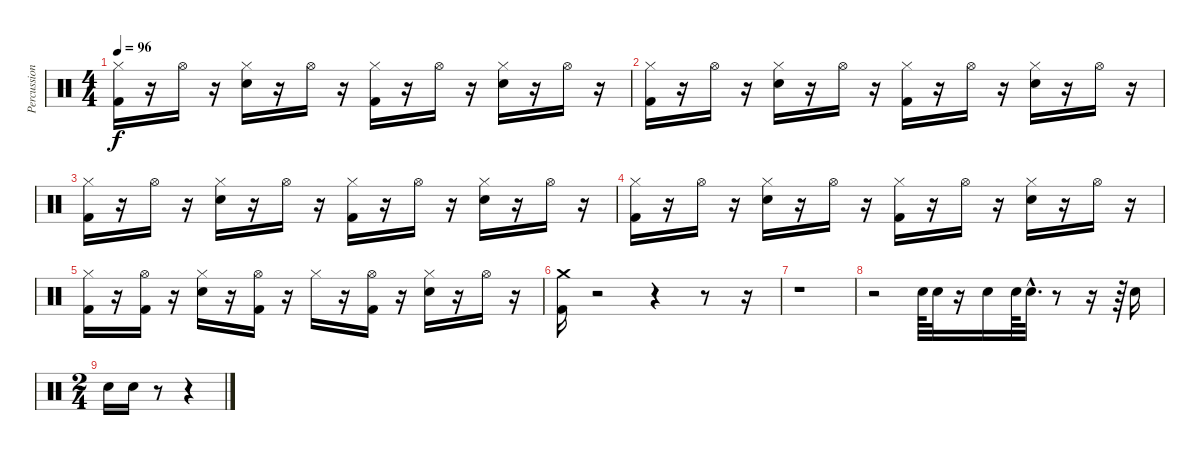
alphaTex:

\track ("Percussion" "Percussion") {instrument percussion}
\staff {score}
\articulation defaults
\ts (4 4)
\tempo 96
\clef neutral
\ks c
("Hi-Hat (closed)" "Kick (hit) 2").16{dy f} r.16 "Hi-Hat (open)".16 r.16 ("Hi-Hat (closed)" "Electric Snare (hit)").16 r.16 "Hi-Hat (open)".16 r.16 ("Kick (hit) 2" "Hi-Hat (closed)").16 r.16 "Hi-Hat (open)".16 r.16 ("Electric Snare (hit)" "Hi-Hat (closed)").16 r.16 "Hi-Hat (open)".16 r.16 |
("Hi-Hat (closed)" "Kick (hit) 2").16 r.16 "Hi-Hat (open)".16 r.16 ("Hi-Hat (closed)" "Electric Snare (hit)").16 r.16 "Hi-Hat (open)".16 r.16 ("Kick (hit) 2" "Hi-Hat (closed)").16 r.16 "Hi-Hat (open)".16 r.16 ("Electric Snare (hit)" "Hi-Hat (closed)").16 r.16 "Hi-Hat (open)".16 r.16 |
("Hi-Hat (closed)" "Kick (hit) 2").16 r.16 "Hi-Hat (open)".16 r.16 ("Hi-Hat (closed)" "Electric Snare (hit)").16 r.16 "Hi-Hat (open)".16 r.16 ("Kick (hit) 2" "Hi-Hat (closed)").16 r.16 "Hi-Hat (open)".16 r.16 ("Electric Snare (hit)" "Hi-Hat (closed)").16 r.16 "Hi-Hat (open)".16 r.16 |
("Hi-Hat (closed)" "Kick (hit) 2").16 r.16 "Hi-Hat (open)".16 r.16 ("Hi-Hat (closed)" "Electric Snare (hit)").16 r.16 "Hi-Hat (open)".16 r.16 ("Kick (hit) 2" "Hi-Hat (closed)").16 r.16 "Hi-Hat (open)".16 r.16 ("Electric Snare (hit)" "Hi-Hat (closed)").16 r.16 "Hi-Hat (open)".16 r.16 |
("Hi-Hat (closed)" "Kick (hit) 2").16 r.16 ("Kick (hit) 2" "Hi-Hat (open)").16 r.16 ("Hi-Hat (closed)" "Electric Snare (hit)").16 r.16 ("Kick (hit) 2" "Hi-Hat (open)").16 r.16 "Hi-Hat (closed)".16 r.16 ("Kick (hit) 2" "Hi-Hat (open)").16 r.16 ("Electric Snare (hit)" "Hi-Hat (closed)").16 r.16 "Hi-Hat (open)".16 r.16 |
("Crash medium (hit)" "Kick (hit) 2").16 r.2 r.4 r.8 r.16 |
r.1 |
r.2 "Electric Snare (hit)".64 "Electric Snare (hit)".32 r.16 "Electric Snare (hit)".16 "Electric Snare (hit)".64 "Electric Snare (hit)"{hac}.32{d} r.8 r.16 r.64 "Electric Snare (hit)".16 |
\ts (2 4)
"Electric Snare (hit)".16 "Electric Snare (hit)".16 r.8 r.4
